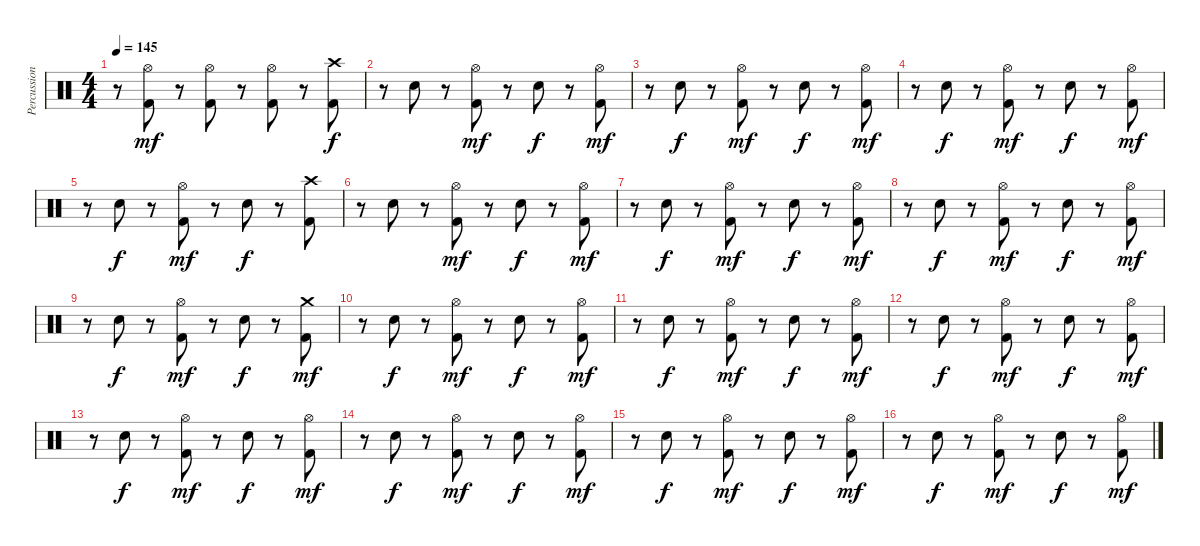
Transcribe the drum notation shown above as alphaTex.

\track ("Percussioni" "Percussion") {instrument percussion}
\staff {score}
\articulation defaults
\ts (4 4)
\tempo 145
\clef neutral
\ks c
r.8{dy mf} ("Kick (hit) 2" "Hi-Hat (open)").8 r.8 ("Kick (hit) 2" "Hi-Hat (open)").8 r.8 ("Kick (hit) 2" "Hi-Hat (open)").8 r.8 ("Kick (hit) 2" "Crash high (hit)").8{dy f} |
r.8 "Snare (hit) 2".8 r.8 ("Kick (hit) 2" "Hi-Hat (open)").8{dy mf} r.8 "Snare (hit) 2".8{dy f} r.8 ("Kick (hit) 2" "Hi-Hat (open)").8{dy mf} |
r.8 "Snare (hit) 2".8{dy f} r.8 ("Kick (hit) 2" "Hi-Hat (open)").8{dy mf} r.8 "Snare (hit) 2".8{dy f} r.8 ("Kick (hit) 2" "Hi-Hat (open)").8{dy mf} |
r.8 "Snare (hit) 2".8{dy f} r.8 ("Kick (hit) 2" "Hi-Hat (open)").8{dy mf} r.8 "Snare (hit) 2".8{dy f} r.8 ("Kick (hit) 2" "Hi-Hat (open)").8{dy mf} |
r.8 "Snare (hit) 2".8{dy f} r.8 ("Kick (hit) 2" "Hi-Hat (open)").8{dy mf} r.8 "Snare (hit) 2".8{dy f} r.8 ("Kick (hit) 2" "Crash high (hit)").8 |
r.8 "Snare (hit) 2".8 r.8 ("Kick (hit) 2" "Hi-Hat (open)").8{dy mf} r.8 "Snare (hit) 2".8{dy f} r.8 ("Kick (hit) 2" "Hi-Hat (open)").8{dy mf} |
r.8 "Snare (hit) 2".8{dy f} r.8 ("Kick (hit) 2" "Hi-Hat (open)").8{dy mf} r.8 "Snare (hit) 2".8{dy f} r.8 ("Kick (hit) 2" "Hi-Hat (open)").8{dy mf} |
r.8 "Snare (hit) 2".8{dy f} r.8 ("Kick (hit) 2" "Hi-Hat (open)").8{dy mf} r.8 "Snare (hit) 2".8{dy f} r.8 ("Kick (hit) 2" "Hi-Hat (open)").8{dy mf} |
r.8 "Snare (hit) 2".8{dy f} r.8 ("Kick (hit) 2" "Hi-Hat (open)").8{dy mf} r.8 "Snare (hit) 2".8{dy f} r.8 ("Kick (hit) 2" "Crash medium (hit)").8{dy mf} |
r.8 "Snare (hit) 2".8{dy f} r.8 ("Kick (hit) 2" "Hi-Hat (open)").8{dy mf} r.8 "Snare (hit) 2".8{dy f} r.8 ("Kick (hit) 2" "Hi-Hat (open)").8{dy mf} |
r.8 "Snare (hit) 2".8{dy f} r.8 ("Kick (hit) 2" "Hi-Hat (open)").8{dy mf} r.8 "Snare (hit) 2".8{dy f} r.8 ("Kick (hit) 2" "Hi-Hat (open)").8{dy mf} |
r.8 "Snare (hit) 2".8{dy f} r.8 ("Kick (hit) 2" "Hi-Hat (open)").8{dy mf} r.8 "Snare (hit) 2".8{dy f} r.8 ("Kick (hit) 2" "Hi-Hat (open)").8{dy mf} |
r.8 "Snare (hit) 2".8{dy f} r.8 ("Kick (hit) 2" "Hi-Hat (open)").8{dy mf} r.8 "Snare (hit) 2".8{dy f} r.8 ("Kick (hit) 2" "Hi-Hat (open)").8{dy mf} |
r.8 "Snare (hit) 2".8{dy f} r.8 ("Kick (hit) 2" "Hi-Hat (open)").8{dy mf} r.8 "Snare (hit) 2".8{dy f} r.8 ("Kick (hit) 2" "Hi-Hat (open)").8{dy mf} |
r.8 "Snare (hit) 2".8{dy f} r.8 ("Kick (hit) 2" "Hi-Hat (open)").8{dy mf} r.8 "Snare (hit) 2".8{dy f} r.8 ("Kick (hit) 2" "Hi-Hat (open)").8{dy mf} |
r.8 "Snare (hit) 2".8{dy f} r.8 ("Kick (hit) 2" "Hi-Hat (open)").8{dy mf} r.8 "Snare (hit) 2".8{dy f} r.8 ("Kick (hit) 2" "Hi-Hat (open)").8{dy mf}
